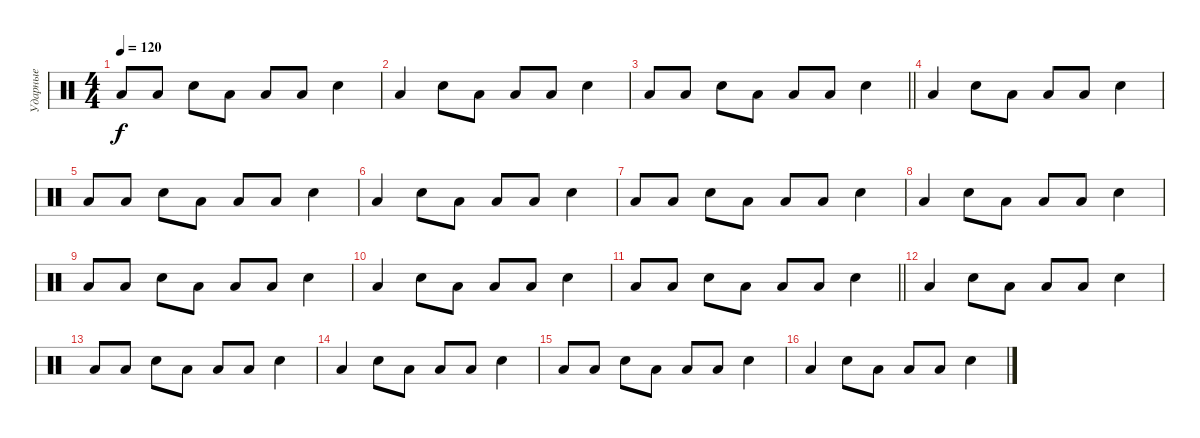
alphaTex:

\track ("Ударные" "Ударные") {instrument percussion}
\staff {score}
\articulation defaults
\ts (4 4)
\tempo 120
\clef neutral
\ks c "Low Floor Tom (hit)".8{dy f} "Low Floor Tom (hit)".8 "Hand Clap (hit)".8 "Low Floor Tom (hit)".8 "Low Floor Tom (hit)".8 "Low Floor Tom (hit)".8 "Hand Clap (hit)".4
|
"Low Floor Tom (hit)".4 "Hand Clap (hit)".8 "Low Floor Tom (hit)".8 "Low Floor Tom (hit)".8 "Low Floor Tom (hit)".8 "Hand Clap (hit)".4 |
\barLineRight lightlight "Low Floor Tom (hit)".8 "Low Floor Tom (hit)".8 "Hand Clap (hit)".8 "Low Floor Tom (hit)".8 "Low Floor Tom (hit)".8 "Low Floor Tom (hit)".8 "Hand Clap (hit)".4
|
\section ("" "")
"Low Floor Tom (hit)".4 "Hand Clap (hit)".8 "Low Floor Tom (hit)".8 "Low Floor Tom (hit)".8 "Low Floor Tom (hit)".8 "Hand Clap (hit)".4 |
"Low Floor Tom (hit)".8 "Low Floor Tom (hit)".8 "Hand Clap (hit)".8 "Low Floor Tom (hit)".8 "Low Floor Tom (hit)".8 "Low Floor Tom (hit)".8 "Hand Clap (hit)".4 |
"Low Floor Tom (hit)".4 "Hand Clap (hit)".8 "Low Floor Tom (hit)".8 "Low Floor Tom (hit)".8 "Low Floor Tom (hit)".8 "Hand Clap (hit)".4 |
"Low Floor Tom (hit)".8 "Low Floor Tom (hit)".8 "Hand Clap (hit)".8 "Low Floor Tom (hit)".8 "Low Floor Tom (hit)".8 "Low Floor Tom (hit)".8 "Hand Clap (hit)".4 |
"Low Floor Tom (hit)".4 "Hand Clap (hit)".8 "Low Floor Tom (hit)".8 "Low Floor Tom (hit)".8 "Low Floor Tom (hit)".8 "Hand Clap (hit)".4 |
"Low Floor Tom (hit)".8 "Low Floor Tom (hit)".8 "Hand Clap (hit)".8 "Low Floor Tom (hit)".8 "Low Floor Tom (hit)".8 "Low Floor Tom (hit)".8 "Hand Clap (hit)".4 |
"Low Floor Tom (hit)".4 "Hand Clap (hit)".8 "Low Floor Tom (hit)".8 "Low Floor Tom (hit)".8 "Low Floor Tom (hit)".8 "Hand Clap (hit)".4 |
\barLineRight lightlight "Low Floor Tom (hit)".8 "Low Floor Tom (hit)".8 "Hand Clap (hit)".8 "Low Floor Tom (hit)".8 "Low Floor Tom (hit)".8 "Low Floor Tom (hit)".8 "Hand Clap (hit)".4
|
\section ("" "")
"Low Floor Tom (hit)".4 "Hand Clap (hit)".8 "Low Floor Tom (hit)".8 "Low Floor Tom (hit)".8 "Low Floor Tom (hit)".8 "Hand Clap (hit)".4 |
"Low Floor Tom (hit)".8 "Low Floor Tom (hit)".8 "Hand Clap (hit)".8 "Low Floor Tom (hit)".8 "Low Floor Tom (hit)".8 "Low Floor Tom (hit)".8 "Hand Clap (hit)".4 |
"Low Floor Tom (hit)".4 "Hand Clap (hit)".8 "Low Floor Tom (hit)".8 "Low Floor Tom (hit)".8 "Low Floor Tom (hit)".8 "Hand Clap (hit)".4 |
"Low Floor Tom (hit)".8 "Low Floor Tom (hit)".8 "Hand Clap (hit)".8 "Low Floor Tom (hit)".8 "Low Floor Tom (hit)".8 "Low Floor Tom (hit)".8 "Hand Clap (hit)".4 |
"Low Floor Tom (hit)".4 "Hand Clap (hit)".8 "Low Floor Tom (hit)".8 "Low Floor Tom (hit)".8 "Low Floor Tom (hit)".8 "Hand Clap (hit)".4
